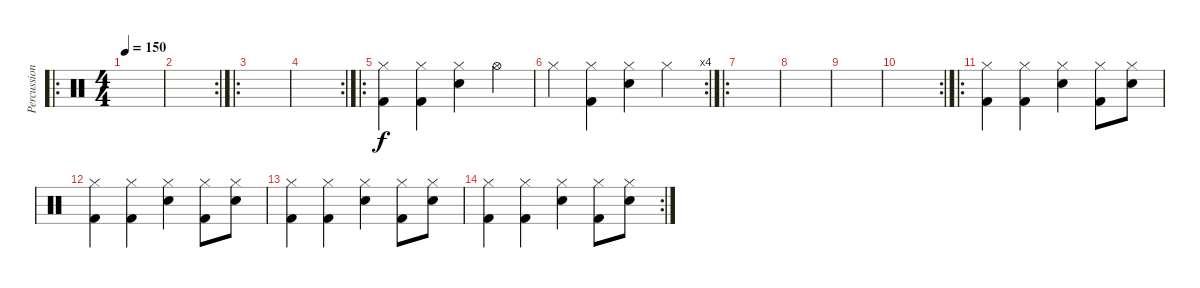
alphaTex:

\track ("Percussions" "Percussion") {instrument percussion}
\staff {score}
\articulation defaults
\ro
\ts (4 4)
\tempo 150
\clef neutral
\ks c
|
\rc 2
|
\ro
|
\rc 2
|
\ro
("Hi-Hat (closed)" "Kick (hit) 2").4 ("Hi-Hat (closed)" "Kick (hit) 2").4 ("Hi-Hat (closed)" "Electric Snare (hit)").4 "Hi-Hat (open)".4 |
\rc 4 "Hi-Hat (closed)".4
("Hi-Hat (closed)" "Kick (hit) 2").4 ("Hi-Hat (closed)" "Electric Snare (hit)").4 "Hi-Hat (closed)".4 |
\ro
|
|
|
\rc 2
|
\ro
("Hi-Hat (closed)" "Kick (hit) 2").4 ("Hi-Hat (closed)" "Kick (hit) 2").4 ("Hi-Hat (closed)" "Electric Snare (hit)").4 ("Hi-Hat (closed)" "Kick (hit) 2").8 ("Hi-Hat (closed)" "Electric Snare (hit)").8 |
("Hi-Hat (closed)" "Kick (hit) 2").4 ("Hi-Hat (closed)" "Kick (hit) 2").4 ("Hi-Hat (closed)" "Electric Snare (hit)").4 ("Hi-Hat (closed)" "Kick (hit) 2").8 ("Hi-Hat (closed)" "Electric Snare (hit)").8 |
("Hi-Hat (closed)" "Kick (hit) 2").4 ("Hi-Hat (closed)" "Kick (hit) 2").4 ("Hi-Hat (closed)" "Electric Snare (hit)").4 ("Hi-Hat (closed)" "Kick (hit) 2").8 ("Hi-Hat (closed)" "Electric Snare (hit)").8 |
\rc 2
("Hi-Hat (closed)" "Kick (hit) 2").4 ("Hi-Hat (closed)" "Kick (hit) 2").4 ("Hi-Hat (closed)" "Electric Snare (hit)").4 ("Hi-Hat (closed)" "Kick (hit) 2").8 ("Hi-Hat (closed)" "Electric Snare (hit)").8
